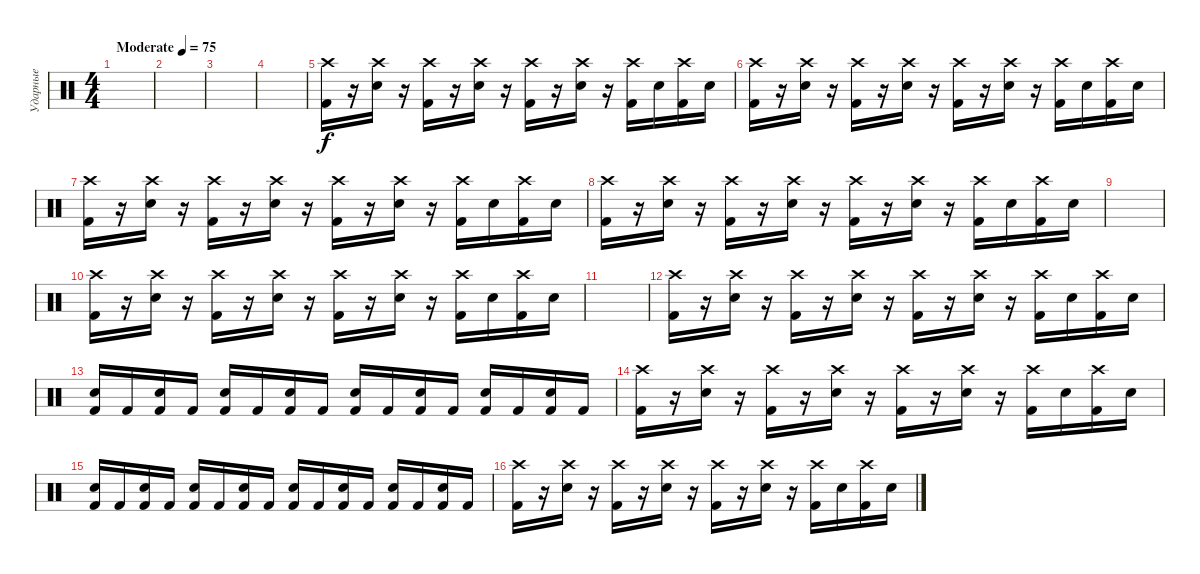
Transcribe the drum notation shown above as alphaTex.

\track ("Ударные" "Ударные") {instrument percussion}
\staff {score}
\articulation defaults
\ts (4 4)
\tempo (75 "Moderate")
\clef neutral
\ks c
|
|
|
|
("Crash high (hit)" "Kick (hit) 2").16 r.16 ("Crash high (hit)" "Snare (hit) 2").16 r.16 ("Crash high (hit)" "Kick (hit) 2").16 r.16 ("Crash high (hit)" "Snare (hit) 2").16 r.16 ("Crash high (hit)" "Kick (hit) 2").16 r.16 ("Crash high (hit)" "Snare (hit) 2").16 r.16 ("Crash high (hit)" "Kick (hit) 2").16 "Snare (hit) 2".16 ("Crash high (hit)" "Kick (hit) 2").16 "Snare (hit) 2".16 |
("Crash high (hit)" "Kick (hit) 2").16 r.16 ("Crash high (hit)" "Snare (hit) 2").16 r.16 ("Crash high (hit)" "Kick (hit) 2").16 r.16 ("Crash high (hit)" "Snare (hit) 2").16 r.16 ("Crash high (hit)" "Kick (hit) 2").16 r.16 ("Crash high (hit)" "Snare (hit) 2").16 r.16 ("Crash high (hit)" "Kick (hit) 2").16 "Snare (hit) 2".16 ("Crash high (hit)" "Kick (hit) 2").16 "Snare (hit) 2".16 |
("Crash high (hit)" "Kick (hit) 2").16 r.16 ("Crash high (hit)" "Snare (hit) 2").16 r.16 ("Crash high (hit)" "Kick (hit) 2").16 r.16 ("Crash high (hit)" "Snare (hit) 2").16 r.16 ("Crash high (hit)" "Kick (hit) 2").16 r.16 ("Crash high (hit)" "Snare (hit) 2").16 r.16 ("Crash high (hit)" "Kick (hit) 2").16 "Snare (hit) 2".16 ("Crash high (hit)" "Kick (hit) 2").16 "Snare (hit) 2".16 |
("Crash high (hit)" "Kick (hit) 2").16 r.16 ("Crash high (hit)" "Snare (hit) 2").16 r.16 ("Crash high (hit)" "Kick (hit) 2").16 r.16 ("Crash high (hit)" "Snare (hit) 2").16 r.16 ("Crash high (hit)" "Kick (hit) 2").16 r.16 ("Crash high (hit)" "Snare (hit) 2").16 r.16 ("Crash high (hit)" "Kick (hit) 2").16 "Snare (hit) 2".16 ("Crash high (hit)" "Kick (hit) 2").16 "Snare (hit) 2".16 |
|
("Crash high (hit)" "Kick (hit) 2").16 r.16 ("Crash high (hit)" "Snare (hit) 2").16 r.16 ("Crash high (hit)" "Kick (hit) 2").16 r.16 ("Crash high (hit)" "Snare (hit) 2").16 r.16 ("Crash high (hit)" "Kick (hit) 2").16 r.16 ("Crash high (hit)" "Snare (hit) 2").16 r.16 ("Crash high (hit)" "Kick (hit) 2").16 "Snare (hit) 2".16 ("Crash high (hit)" "Kick (hit) 2").16 "Snare (hit) 2".16 |
|
("Crash high (hit)" "Kick (hit) 2").16 r.16 ("Crash high (hit)" "Snare (hit) 2").16 r.16 ("Crash high (hit)" "Kick (hit) 2").16 r.16 ("Crash high (hit)" "Snare (hit) 2").16 r.16 ("Crash high (hit)" "Kick (hit) 2").16 r.16 ("Crash high (hit)" "Snare (hit) 2").16 r.16 ("Crash high (hit)" "Kick (hit) 2").16 "Snare (hit) 2".16 ("Crash high (hit)" "Kick (hit) 2").16 "Snare (hit) 2".16 |
("Snare (hit) 2" "Kick (hit) 2").16 "Kick (hit) 2".16 ("Snare (hit) 2" "Kick (hit) 2").16 "Kick (hit) 2".16 ("Snare (hit) 2" "Kick (hit) 2").16 "Kick (hit) 2".16 ("Snare (hit) 2" "Kick (hit) 2").16 "Kick (hit) 2".16 ("Snare (hit) 2" "Kick (hit) 2").16 "Kick (hit) 2".16 ("Snare (hit) 2" "Kick (hit) 2").16 "Kick (hit) 2".16 ("Snare (hit) 2" "Kick (hit) 2").16 "Kick (hit) 2".16 ("Snare (hit) 2" "Kick (hit) 2").16 "Kick (hit) 2".16 |
("Crash high (hit)" "Kick (hit) 2").16 r.16 ("Crash high (hit)" "Snare (hit) 2").16 r.16 ("Crash high (hit)" "Kick (hit) 2").16 r.16 ("Crash high (hit)" "Snare (hit) 2").16 r.16 ("Crash high (hit)" "Kick (hit) 2").16 r.16 ("Crash high (hit)" "Snare (hit) 2").16 r.16 ("Crash high (hit)" "Kick (hit) 2").16 "Snare (hit) 2".16 ("Crash high (hit)" "Kick (hit) 2").16 "Snare (hit) 2".16 |
("Snare (hit) 2" "Kick (hit) 2").16 "Kick (hit) 2".16 ("Snare (hit) 2" "Kick (hit) 2").16 "Kick (hit) 2".16 ("Snare (hit) 2" "Kick (hit) 2").16 "Kick (hit) 2".16 ("Snare (hit) 2" "Kick (hit) 2").16 "Kick (hit) 2".16 ("Snare (hit) 2" "Kick (hit) 2").16 "Kick (hit) 2".16 ("Snare (hit) 2" "Kick (hit) 2").16 "Kick (hit) 2".16 ("Snare (hit) 2" "Kick (hit) 2").16 "Kick (hit) 2".16 ("Snare (hit) 2" "Kick (hit) 2").16 "Kick (hit) 2".16 |
("Crash high (hit)" "Kick (hit) 2").16 r.16 ("Crash high (hit)" "Snare (hit) 2").16 r.16 ("Crash high (hit)" "Kick (hit) 2").16 r.16 ("Crash high (hit)" "Snare (hit) 2").16 r.16 ("Crash high (hit)" "Kick (hit) 2").16 r.16 ("Crash high (hit)" "Snare (hit) 2").16 r.16 ("Crash high (hit)" "Kick (hit) 2").16 "Snare (hit) 2".16 ("Crash high (hit)" "Kick (hit) 2").16 "Snare (hit) 2".16
